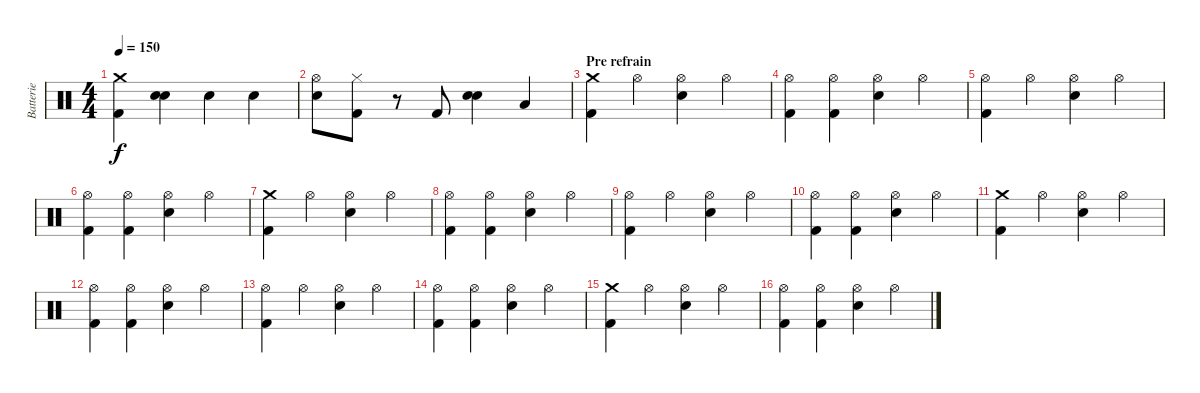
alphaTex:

\track ("Batterie" "Batterie") {instrument percussion}
\staff {score}
\articulation defaults
\ts (4 4)
\tempo 150
\clef neutral
\ks c
("Crash medium (hit)" "Kick (hit) 2").4{dy f} ("Electric Snare (hit)" "Electric Snare (hit)").4{bu 120} "Electric Snare (hit)".4 "Electric Snare (hit)".4 |
("Hi-Hat (open)" "Electric Snare (hit)").8 ("Hi-Hat (closed)" "Kick (hit) 2").8 r.8 "Kick (hit) 2".8 ("Electric Snare (hit)" "Electric Snare (hit)").4{bu 240} "Low Tom (hit)".4 |
\section ("" "Pre refrain")
("Crash medium (hit)" "Kick (hit) 2").4 "Hi-Hat (open)".4 ("Hi-Hat (open)" "Electric Snare (hit)").4 "Hi-Hat (open)".4 |
("Hi-Hat (open)" "Kick (hit) 2").4 ("Hi-Hat (open)" "Kick (hit) 2").4 ("Hi-Hat (open)" "Electric Snare (hit)").4 "Hi-Hat (open)".4 |
("Hi-Hat (open)" "Kick (hit) 2").4 "Hi-Hat (open)".4 ("Hi-Hat (open)" "Electric Snare (hit)").4 "Hi-Hat (open)".4 |
("Hi-Hat (open)" "Kick (hit) 2").4 ("Hi-Hat (open)" "Kick (hit) 2").4 ("Hi-Hat (open)" "Electric Snare (hit)").4 "Hi-Hat (open)".4 |
("Crash medium (hit)" "Kick (hit) 2").4 "Hi-Hat (open)".4 ("Hi-Hat (open)" "Electric Snare (hit)").4 "Hi-Hat (open)".4 |
("Hi-Hat (open)" "Kick (hit) 2").4 ("Hi-Hat (open)" "Kick (hit) 2").4 ("Hi-Hat (open)" "Electric Snare (hit)").4 "Hi-Hat (open)".4 |
("Hi-Hat (open)" "Kick (hit) 2").4 "Hi-Hat (open)".4 ("Hi-Hat (open)" "Electric Snare (hit)").4 "Hi-Hat (open)".4 |
("Hi-Hat (open)" "Kick (hit) 2").4 ("Hi-Hat (open)" "Kick (hit) 2").4 ("Hi-Hat (open)" "Electric Snare (hit)").4 "Hi-Hat (open)".4 |
("Crash medium (hit)" "Kick (hit) 2").4 "Hi-Hat (open)".4 ("Hi-Hat (open)" "Electric Snare (hit)").4 "Hi-Hat (open)".4 |
("Hi-Hat (open)" "Kick (hit) 2").4 ("Hi-Hat (open)" "Kick (hit) 2").4 ("Hi-Hat (open)" "Electric Snare (hit)").4 "Hi-Hat (open)".4 |
("Hi-Hat (open)" "Kick (hit) 2").4 "Hi-Hat (open)".4 ("Hi-Hat (open)" "Electric Snare (hit)").4 "Hi-Hat (open)".4 |
("Hi-Hat (open)" "Kick (hit) 2").4 ("Hi-Hat (open)" "Kick (hit) 2").4 ("Hi-Hat (open)" "Electric Snare (hit)").4 "Hi-Hat (open)".4 |
("Crash medium (hit)" "Kick (hit) 2").4 "Hi-Hat (open)".4 ("Hi-Hat (open)" "Electric Snare (hit)").4 "Hi-Hat (open)".4 |
("Hi-Hat (open)" "Kick (hit) 2").4 ("Hi-Hat (open)" "Kick (hit) 2").4 ("Hi-Hat (open)" "Electric Snare (hit)").4 "Hi-Hat (open)".4
